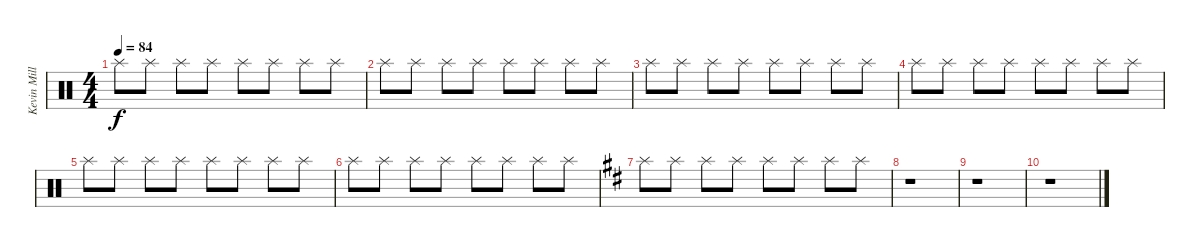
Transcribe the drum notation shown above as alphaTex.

\track ("Kevin Miller (Drums)" "Kevin Mill") {instrument percussion}
\staff {score}
\articulation defaults
\ts (4 4)
\tempo 84
\clef neutral
\ks c "Splash (hit)".8{dy f} "Splash (hit)".8 "Splash (hit)".8 "Splash (hit)".8 "Splash (hit)".8 "Splash (hit)".8 "Splash (hit)".8 "Splash (hit)".8
|
"Splash (hit)".8 "Splash (hit)".8 "Splash (hit)".8 "Splash (hit)".8 "Splash (hit)".8 "Splash (hit)".8 "Splash (hit)".8 "Splash (hit)".8 |
"Splash (hit)".8 "Splash (hit)".8 "Splash (hit)".8 "Splash (hit)".8 "Splash (hit)".8 "Splash (hit)".8 "Splash (hit)".8 "Splash (hit)".8 |
"Splash (hit)".8 "Splash (hit)".8 "Splash (hit)".8 "Splash (hit)".8 "Splash (hit)".8 "Splash (hit)".8 "Splash (hit)".8 "Splash (hit)".8 |
"Splash (hit)".8 "Splash (hit)".8 "Splash (hit)".8 "Splash (hit)".8 "Splash (hit)".8 "Splash (hit)".8 "Splash (hit)".8 "Splash (hit)".8 |
"Splash (hit)".8 "Splash (hit)".8 "Splash (hit)".8 "Splash (hit)".8 "Splash (hit)".8 "Splash (hit)".8 "Splash (hit)".8 "Splash (hit)".8 |
\ks d "Splash (hit)".8 "Splash (hit)".8 "Splash (hit)".8 "Splash (hit)".8 "Splash (hit)".8 "Splash (hit)".8 "Splash (hit)".8 "Splash (hit)".8
|
r.1 |
r.1 |
r.1
